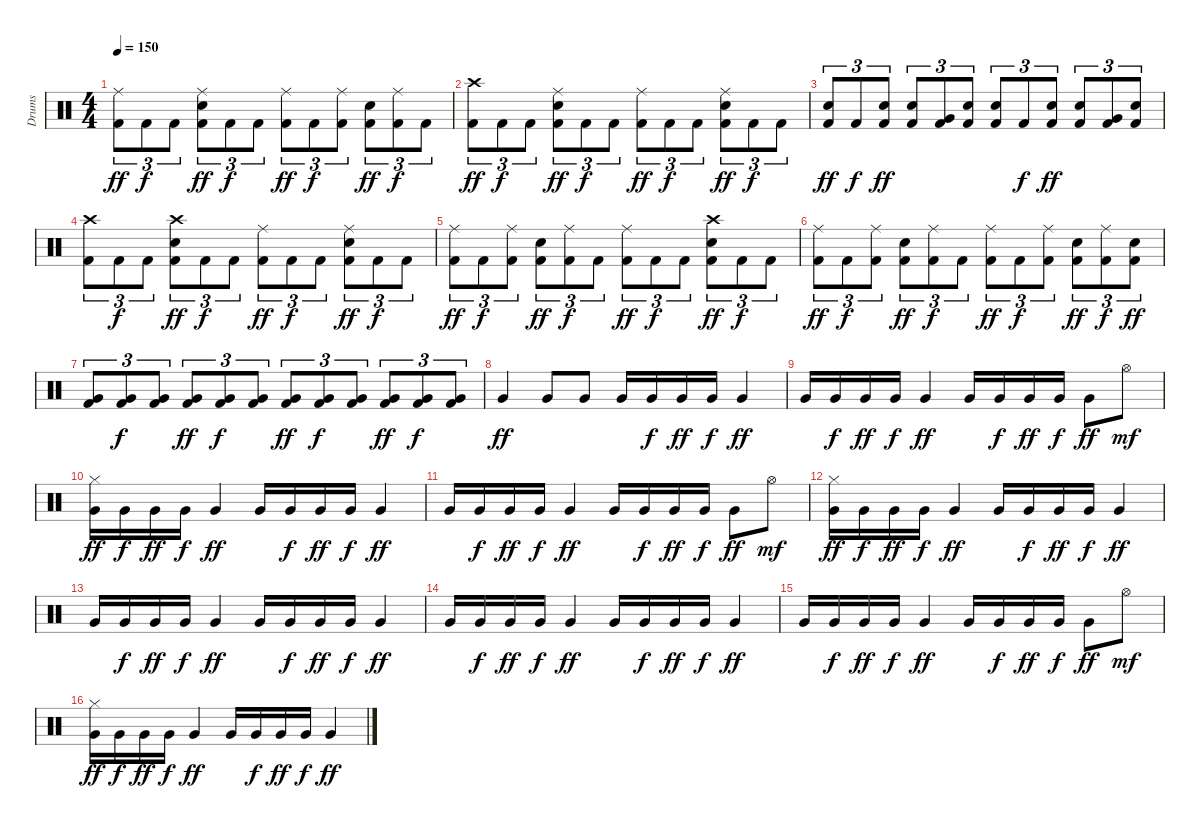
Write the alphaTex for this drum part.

\track ("Drums" "Drums") {instrument percussion}
\staff {score}
\articulation defaults
\ts (4 4)
\tempo 150
\clef neutral
\ks c
("Ride (middle)" "Kick (hit) 2").8{tu (3 2) dy ff} "Kick (hit) 2".8{tu (3 2) dy f} "Kick (hit) 2".8{tu (3 2)} ("Kick (hit) 2" "Ride (middle)" "Snare (hit) 2").8{tu (3 2) dy ff} "Kick (hit) 2".8{tu (3 2) dy f} "Kick (hit) 2".8{tu (3 2)} ("Ride (middle)" "Kick (hit) 2").8{tu (3 2) dy ff} "Kick (hit) 2".8{tu (3 2) dy f} ("Ride (middle)" "Kick (hit) 2").8{tu (3 2)} ("Snare (hit) 2" "Kick (hit) 2").8{tu (3 2) dy ff} ("Ride (middle)" "Kick (hit) 2").8{tu (3 2) dy f} "Kick (hit) 2".8{tu (3 2)} |
("Crash high (hit)" "Kick (hit) 2").8{tu (3 2) dy ff} "Kick (hit) 2".8{tu (3 2) dy f} "Kick (hit) 2".8{tu (3 2)} ("Kick (hit) 2" "Ride (middle)" "Snare (hit) 2").8{tu (3 2) dy ff} "Kick (hit) 2".8{tu (3 2) dy f} "Kick (hit) 2".8{tu (3 2)} ("Ride (middle)" "Kick (hit) 2").8{tu (3 2) dy ff} "Kick (hit) 2".8{tu (3 2) dy f} "Kick (hit) 2".8{tu (3 2)} ("Kick (hit) 2" "Ride (middle)" "Snare (hit) 2").8{tu (3 2) dy ff} "Kick (hit) 2".8{tu (3 2) dy f} "Kick (hit) 2".8{tu (3 2)} |
("Snare (hit) 2" "Kick (hit) 2").8{tu (3 2) dy ff} "Kick (hit) 2".8{tu (3 2) dy f} ("Snare (hit) 2" "Kick (hit) 2").8{tu (3 2) dy ff} ("Snare (hit) 2" "Kick (hit) 2").8{tu (3 2)} ("Very Low Tom (hit)" "Kick (hit) 2").8{tu (3 2)} ("Snare (hit) 2" "Kick (hit) 2").8{tu (3 2)} ("Snare (hit) 2" "Kick (hit) 2").8{tu (3 2)} "Kick (hit) 2".8{tu (3 2) dy f} ("Snare (hit) 2" "Kick (hit) 2").8{tu (3 2) dy ff} ("Snare (hit) 2" "Kick (hit) 2").8{tu (3 2)} ("Very Low Tom (hit)" "Kick (hit) 2").8{tu (3 2)} ("Snare (hit) 2" "Kick (hit) 2").8{tu (3 2)} |
("Crash high (hit)" "Kick (hit) 2").8{tu (3 2)} "Kick (hit) 2".8{tu (3 2) dy f} "Kick (hit) 2".8{tu (3 2)} ("Crash high (hit)" "Snare (hit) 2" "Kick (hit) 2").8{tu (3 2) dy ff} "Kick (hit) 2".8{tu (3 2) dy f} "Kick (hit) 2".8{tu (3 2)} ("Ride (middle)" "Kick (hit) 2").8{tu (3 2) dy ff} "Kick (hit) 2".8{tu (3 2) dy f} "Kick (hit) 2".8{tu (3 2)} ("Kick (hit) 2" "Ride (middle)" "Snare (hit) 2").8{tu (3 2) dy ff} "Kick (hit) 2".8{tu (3 2) dy f} "Kick (hit) 2".8{tu (3 2)} |
("Ride (middle)" "Kick (hit) 2").8{tu (3 2) dy ff} "Kick (hit) 2".8{tu (3 2) dy f} ("Ride (middle)" "Kick (hit) 2").8{tu (3 2)} ("Snare (hit) 2" "Kick (hit) 2").8{tu (3 2) dy ff} ("Ride (middle)" "Kick (hit) 2").8{tu (3 2) dy f} "Kick (hit) 2".8{tu (3 2)} ("Ride (middle)" "Kick (hit) 2").8{tu (3 2) dy ff} "Kick (hit) 2".8{tu (3 2) dy f} "Kick (hit) 2".8{tu (3 2)} ("Snare (hit) 2" "Crash high (hit)" "Kick (hit) 2").8{tu (3 2) dy ff} "Kick (hit) 2".8{tu (3 2) dy f} "Kick (hit) 2".8{tu (3 2)} |
("Ride (middle)" "Kick (hit) 2").8{tu (3 2) dy ff} "Kick (hit) 2".8{tu (3 2) dy f} ("Ride (middle)" "Kick (hit) 2").8{tu (3 2)} ("Snare (hit) 2" "Kick (hit) 2").8{tu (3 2) dy ff} ("Ride (middle)" "Kick (hit) 2").8{tu (3 2) dy f} "Kick (hit) 2".8{tu (3 2)} ("Ride (middle)" "Kick (hit) 2").8{tu (3 2) dy ff} "Kick (hit) 2".8{tu (3 2) dy f} ("Ride (middle)" "Kick (hit) 2").8{tu (3 2)} ("Snare (hit) 2" "Kick (hit) 2").8{tu (3 2) dy ff} ("Ride (middle)" "Kick (hit) 2").8{tu (3 2) dy f} ("Snare (hit) 2" "Kick (hit) 2").8{tu (3 2) dy ff} |
("Very Low Tom (hit)" "Kick (hit) 2").8{tu (3 2)} ("Very Low Tom (hit)" "Kick (hit) 2").8{tu (3 2) dy f} ("Very Low Tom (hit)" "Kick (hit) 2").8{tu (3 2)} ("Very Low Tom (hit)" "Kick (hit) 2").8{tu (3 2) dy ff} ("Very Low Tom (hit)" "Kick (hit) 2").8{tu (3 2) dy f} ("Very Low Tom (hit)" "Kick (hit) 2").8{tu (3 2)} ("Very Low Tom (hit)" "Kick (hit) 2").8{tu (3 2) dy ff} ("Very Low Tom (hit)" "Kick (hit) 2").8{tu (3 2) dy f} ("Very Low Tom (hit)" "Kick (hit) 2").8{tu (3 2)} ("Very Low Tom (hit)" "Kick (hit) 2").8{tu (3 2) dy ff} ("Very Low Tom (hit)" "Kick (hit) 2").8{tu (3 2) dy f} ("Very Low Tom (hit)" "Kick (hit) 2").8{tu (3 2)} |
"Very Low Tom (hit)".4{dy ff} "Very Low Tom (hit)".8 "Very Low Tom (hit)".8 "Very Low Tom (hit)".16 "Very Low Tom (hit)".16{dy f} "Very Low Tom (hit)".16{dy ff} "Very Low Tom (hit)".16{dy f} "Very Low Tom (hit)".4{dy ff} |
"Very Low Tom (hit)".16 "Very Low Tom (hit)".16{dy f} "Very Low Tom (hit)".16{dy ff} "Very Low Tom (hit)".16{dy f} "Very Low Tom (hit)".4{dy ff} "Very Low Tom (hit)".16 "Very Low Tom (hit)".16{dy f} "Very Low Tom (hit)".16{dy ff} "Very Low Tom (hit)".16{dy f} "Very Low Tom (hit)".8{dy ff} "Hi-Hat (open)".8{dy mf} |
("Hi-Hat (closed)" "Very Low Tom (hit)").16{dy ff} "Very Low Tom (hit)".16{dy f} "Very Low Tom (hit)".16{dy ff} "Very Low Tom (hit)".16{dy f} "Very Low Tom (hit)".4{dy ff} "Very Low Tom (hit)".16 "Very Low Tom (hit)".16{dy f} "Very Low Tom (hit)".16{dy ff} "Very Low Tom (hit)".16{dy f} "Very Low Tom (hit)".4{dy ff} |
"Very Low Tom (hit)".16 "Very Low Tom (hit)".16{dy f} "Very Low Tom (hit)".16{dy ff} "Very Low Tom (hit)".16{dy f} "Very Low Tom (hit)".4{dy ff} "Very Low Tom (hit)".16 "Very Low Tom (hit)".16{dy f} "Very Low Tom (hit)".16{dy ff} "Very Low Tom (hit)".16{dy f} "Very Low Tom (hit)".8{dy ff} "Hi-Hat (open)".8{dy mf} |
("Hi-Hat (closed)" "Very Low Tom (hit)").16{dy ff} "Very Low Tom (hit)".16{dy f} "Very Low Tom (hit)".16{dy ff} "Very Low Tom (hit)".16{dy f} "Very Low Tom (hit)".4{dy ff} "Very Low Tom (hit)".16 "Very Low Tom (hit)".16{dy f} "Very Low Tom (hit)".16{dy ff} "Very Low Tom (hit)".16{dy f} "Very Low Tom (hit)".4{dy ff} |
"Very Low Tom (hit)".16 "Very Low Tom (hit)".16{dy f} "Very Low Tom (hit)".16{dy ff} "Very Low Tom (hit)".16{dy f} "Very Low Tom (hit)".4{dy ff} "Very Low Tom (hit)".16 "Very Low Tom (hit)".16{dy f} "Very Low Tom (hit)".16{dy ff} "Very Low Tom (hit)".16{dy f} "Very Low Tom (hit)".4{dy ff} |
"Very Low Tom (hit)".16 "Very Low Tom (hit)".16{dy f} "Very Low Tom (hit)".16{dy ff} "Very Low Tom (hit)".16{dy f} "Very Low Tom (hit)".4{dy ff} "Very Low Tom (hit)".16 "Very Low Tom (hit)".16{dy f} "Very Low Tom (hit)".16{dy ff} "Very Low Tom (hit)".16{dy f} "Very Low Tom (hit)".4{dy ff} |
"Very Low Tom (hit)".16 "Very Low Tom (hit)".16{dy f} "Very Low Tom (hit)".16{dy ff} "Very Low Tom (hit)".16{dy f} "Very Low Tom (hit)".4{dy ff} "Very Low Tom (hit)".16 "Very Low Tom (hit)".16{dy f} "Very Low Tom (hit)".16{dy ff} "Very Low Tom (hit)".16{dy f} "Very Low Tom (hit)".8{dy ff} "Hi-Hat (open)".8{dy mf} |
("Hi-Hat (closed)" "Very Low Tom (hit)").16{dy ff} "Very Low Tom (hit)".16{dy f} "Very Low Tom (hit)".16{dy ff} "Very Low Tom (hit)".16{dy f} "Very Low Tom (hit)".4{dy ff} "Very Low Tom (hit)".16 "Very Low Tom (hit)".16{dy f} "Very Low Tom (hit)".16{dy ff} "Very Low Tom (hit)".16{dy f} "Very Low Tom (hit)".4{dy ff}
